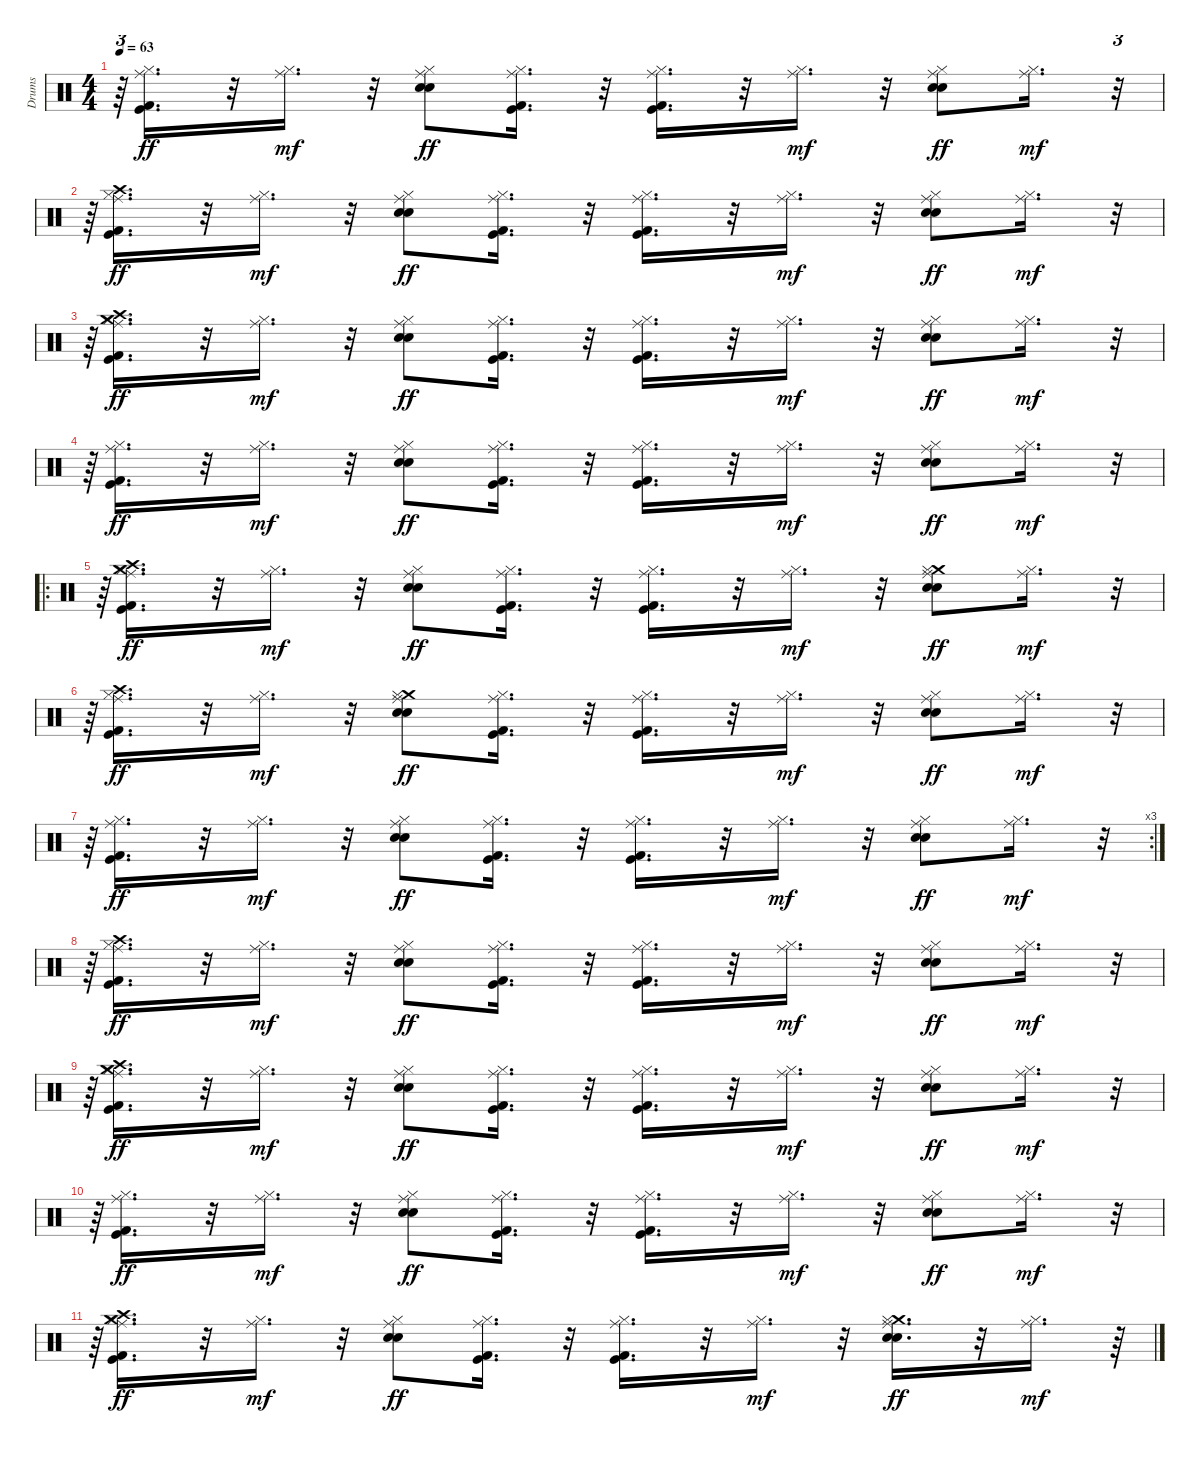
\track ("Drums" "Drums") {instrument percussion}
\staff {score}
\articulation defaults
\ts (4 4)
\tempo 63
\clef neutral
\ks c
r.64{tu (3 2) dy mf} ("Hi-Hat (closed)" "Kick (hit) 2" "Ride (middle)" "Kick (hit)").16{d dy ff} r.32 ("Hi-Hat (closed)" "Ride (middle)").16{d dy mf} r.32 ("Snare (hit) 2" "Hi-Hat (closed)" "Ride (middle)" "Snare (hit) 2").8{dy ff} ("Hi-Hat (closed)" "Kick (hit) 2" "Ride (middle)" "Kick (hit)").16{d} r.32 ("Hi-Hat (closed)" "Kick (hit) 2" "Ride (middle)" "Kick (hit)").16{d} r.32 ("Hi-Hat (closed)" "Ride (middle)").16{d dy mf} r.32 ("Snare (hit) 2" "Hi-Hat (closed)" "Ride (middle)" "Snare (hit) 2").8{dy ff} ("Hi-Hat (closed)" "Ride (middle)").16{d dy mf} r.32{tu (3 2)} |
r.64{tu (3 2)} ("Hi-Hat (closed)" "Kick (hit) 2" "Ride (middle)" "Kick (hit)" "Crash high (hit)").16{d dy ff} r.32 ("Hi-Hat (closed)" "Ride (middle)").16{d dy mf} r.32 ("Snare (hit) 2" "Hi-Hat (closed)" "Ride (middle)" "Snare (hit) 2").8{dy ff} ("Hi-Hat (closed)" "Kick (hit) 2" "Ride (middle)" "Kick (hit)").16{d} r.32 ("Hi-Hat (closed)" "Kick (hit) 2" "Ride (middle)" "Kick (hit)").16{d} r.32 ("Hi-Hat (closed)" "Ride (middle)").16{d dy mf} r.32 ("Snare (hit) 2" "Hi-Hat (closed)" "Ride (middle)" "Snare (hit) 2").8{dy ff} ("Hi-Hat (closed)" "Ride (middle)").16{d dy mf} r.32{tu (3 2)} |
r.64{tu (3 2)} ("Crash medium (hit)" "Hi-Hat (closed)" "Kick (hit) 2" "Crash high (hit)" "Ride (middle)" "Kick (hit)").16{d dy ff volume 14} r.32 ("Hi-Hat (closed)" "Ride (middle)").16{d dy mf volume 14} r.32 ("Snare (hit) 2" "Hi-Hat (closed)" "Ride (middle)" "Snare (hit) 2").8{dy ff volume 13} ("Hi-Hat (closed)" "Kick (hit) 2" "Ride (middle)" "Kick (hit)").16{d volume 13} r.32 ("Hi-Hat (closed)" "Kick (hit) 2" "Ride (middle)" "Kick (hit)").16{d volume 13} r.32 ("Hi-Hat (closed)" "Ride (middle)").16{d dy mf volume 13} r.32 ("Snare (hit) 2" "Hi-Hat (closed)" "Ride (middle)" "Snare (hit) 2").8{dy ff volume 13} ("Hi-Hat (closed)" "Ride (middle)").16{d dy mf volume 12} r.32{tu (3 2)} |
r.64{tu (3 2)} ("Hi-Hat (closed)" "Kick (hit) 2" "Ride (middle)" "Kick (hit)").16{d dy ff volume 12} r.32 ("Hi-Hat (closed)" "Ride (middle)").16{d dy mf volume 12} r.32 ("Snare (hit) 2" "Hi-Hat (closed)" "Ride (middle)" "Snare (hit) 2").8{dy ff volume 12} ("Hi-Hat (closed)" "Kick (hit) 2" "Ride (middle)" "Kick (hit)").16{d volume 12} r.32 ("Hi-Hat (closed)" "Kick (hit) 2" "Ride (middle)" "Kick (hit)").16{d volume 12} r.32 ("Hi-Hat (closed)" "Ride (middle)").16{d dy mf volume 11} r.32 ("Snare (hit) 2" "Hi-Hat (closed)" "Ride (middle)" "Snare (hit) 2").8{dy ff volume 11} ("Hi-Hat (closed)" "Ride (middle)").16{d dy mf volume 11} r.32{tu (3 2)} |
\ro
r.64{tu (3 2)} ("Crash medium (hit)" "Hi-Hat (closed)" "Kick (hit) 2" "Crash high (hit)" "Ride (middle)" "Kick (hit)").16{d dy ff volume 11} r.32 ("Hi-Hat (closed)" "Ride (middle)").16{d dy mf volume 10} r.32 ("Snare (hit) 2" "Hi-Hat (closed)" "Ride (middle)" "Snare (hit) 2").8{dy ff volume 10} ("Hi-Hat (closed)" "Kick (hit) 2" "Ride (middle)" "Kick (hit)").16{d volume 10} r.32 ("Hi-Hat (closed)" "Kick (hit) 2" "Ride (middle)" "Kick (hit)").16{d volume 10} r.32 ("Hi-Hat (closed)" "Ride (middle)").16{d dy mf volume 10} r.32 ("Crash medium (hit)" "Snare (hit) 2" "Hi-Hat (closed)" "Ride (middle)" "Snare (hit) 2").8{dy ff volume 10} ("Hi-Hat (closed)" "Ride (middle)").16{d dy mf volume 9} r.32{tu (3 2)} |
r.64{tu (3 2)} ("Hi-Hat (closed)" "Kick (hit) 2" "Crash high (hit)" "Ride (middle)" "Kick (hit)").16{d dy ff volume 9} r.32 ("Hi-Hat (closed)" "Ride (middle)").16{d dy mf volume 9} r.32 ("Crash medium (hit)" "Snare (hit) 2" "Hi-Hat (closed)" "Ride (middle)" "Snare (hit) 2").8{dy ff volume 9} ("Hi-Hat (closed)" "Kick (hit) 2" "Ride (middle)" "Kick (hit)").16{d volume 9} r.32 ("Hi-Hat (closed)" "Kick (hit) 2" "Ride (middle)" "Kick (hit)").16{d volume 8} r.32 ("Hi-Hat (closed)" "Ride (middle)").16{d dy mf volume 8} r.32 ("Snare (hit) 2" "Hi-Hat (closed)" "Ride (middle)" "Snare (hit) 2").8{dy ff volume 8} ("Hi-Hat (closed)" "Ride (middle)").16{d dy mf volume 8} r.32{tu (3 2)} |
\rc 3
r.64{tu (3 2)} ("Hi-Hat (closed)" "Kick (hit) 2" "Ride (middle)" "Kick (hit)").16{d dy ff volume 8} r.32 ("Hi-Hat (closed)" "Ride (middle)").16{d dy mf volume 8} r.32 ("Snare (hit) 2" "Hi-Hat (closed)" "Ride (middle)" "Snare (hit) 2").8{dy ff volume 7} ("Hi-Hat (closed)" "Kick (hit) 2" "Ride (middle)" "Kick (hit)").16{d volume 7} r.32 ("Hi-Hat (closed)" "Kick (hit) 2" "Ride (middle)" "Kick (hit)").16{d volume 7} r.32 ("Hi-Hat (closed)" "Ride (middle)").16{d dy mf volume 7} r.32 ("Snare (hit) 2" "Hi-Hat (closed)" "Ride (middle)" "Snare (hit) 2").8{dy ff volume 6} ("Hi-Hat (closed)" "Ride (middle)").16{d dy mf volume 6} r.32{tu (3 2)} |
r.64{tu (3 2)} ("Hi-Hat (closed)" "Kick (hit) 2" "Ride (middle)" "Kick (hit)" "Crash high (hit)").16{d dy ff volume 6} r.32 ("Hi-Hat (closed)" "Ride (middle)").16{d dy mf volume 6} r.32 ("Snare (hit) 2" "Hi-Hat (closed)" "Ride (middle)" "Snare (hit) 2").8{dy ff volume 6} ("Hi-Hat (closed)" "Kick (hit) 2" "Ride (middle)" "Kick (hit)").16{d volume 6} r.32 ("Hi-Hat (closed)" "Kick (hit) 2" "Ride (middle)" "Kick (hit)").16{d volume 5} r.32 ("Hi-Hat (closed)" "Ride (middle)").16{d dy mf volume 5} r.32 ("Snare (hit) 2" "Hi-Hat (closed)" "Ride (middle)" "Snare (hit) 2").8{dy ff volume 5} ("Hi-Hat (closed)" "Ride (middle)").16{d dy mf volume 5} r.32{tu (3 2)} |
r.64{tu (3 2)} ("Crash medium (hit)" "Hi-Hat (closed)" "Kick (hit) 2" "Crash high (hit)" "Ride (middle)" "Kick (hit)").16{d dy ff volume 5} r.32 ("Hi-Hat (closed)" "Ride (middle)").16{d dy mf volume 4} r.32 ("Snare (hit) 2" "Hi-Hat (closed)" "Ride (middle)" "Snare (hit) 2").8{dy ff volume 4} ("Hi-Hat (closed)" "Kick (hit) 2" "Ride (middle)" "Kick (hit)").16{d volume 4} r.32 ("Hi-Hat (closed)" "Kick (hit) 2" "Ride (middle)" "Kick (hit)").16{d volume 4} r.32 ("Hi-Hat (closed)" "Ride (middle)").16{d dy mf volume 4} r.32 ("Snare (hit) 2" "Hi-Hat (closed)" "Ride (middle)" "Snare (hit) 2").8{dy ff volume 4} ("Hi-Hat (closed)" "Ride (middle)").16{d dy mf volume 3} r.32{tu (3 2)} |
r.64{tu (3 2)} ("Hi-Hat (closed)" "Kick (hit) 2" "Ride (middle)" "Kick (hit)").16{d dy ff volume 3} r.32 ("Hi-Hat (closed)" "Ride (middle)").16{d dy mf volume 3} r.32 ("Snare (hit) 2" "Hi-Hat (closed)" "Ride (middle)" "Snare (hit) 2").8{dy ff volume 3} ("Hi-Hat (closed)" "Kick (hit) 2" "Ride (middle)" "Kick (hit)").16{d volume 2} r.32 ("Hi-Hat (closed)" "Kick (hit) 2" "Ride (middle)" "Kick (hit)").16{d volume 2} r.32 ("Hi-Hat (closed)" "Ride (middle)").16{d dy mf volume 2} r.32 ("Snare (hit) 2" "Hi-Hat (closed)" "Ride (middle)" "Snare (hit) 2").8{dy ff volume 2} ("Hi-Hat (closed)" "Ride (middle)").16{d dy mf volume 2} r.32{tu (3 2)} |
r.64{tu (3 2)} ("Crash medium (hit)" "Hi-Hat (closed)" "Kick (hit) 2" "Crash high (hit)" "Ride (middle)" "Kick (hit)").16{d dy ff volume 2} r.32 ("Hi-Hat (closed)" "Ride (middle)").16{d dy mf volume 1} r.32 ("Snare (hit) 2" "Hi-Hat (closed)" "Ride (middle)" "Snare (hit) 2").8{dy ff volume 1} ("Hi-Hat (closed)" "Kick (hit) 2" "Ride (middle)" "Kick (hit)").16{d volume 1} r.32 ("Hi-Hat (closed)" "Kick (hit) 2" "Ride (middle)" "Kick (hit)").16{d volume 0} r.32 ("Hi-Hat (closed)" "Ride (middle)").16{d dy mf volume 1} r.32 ("Crash medium (hit)" "Snare (hit) 2" "Hi-Hat (closed)" "Ride (middle)" "Snare (hit) 2").16{d dy ff volume 0} r.32 ("Hi-Hat (closed)" "Ride (middle)").16{d dy mf volume 0} r.64
